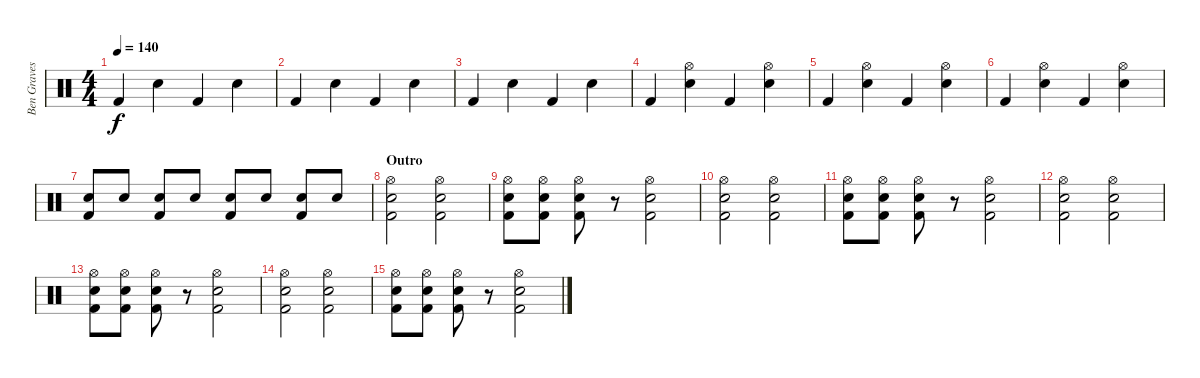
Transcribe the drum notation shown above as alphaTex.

\track ("Ben Graves" "Ben Graves") {instrument percussion}
\staff {score}
\articulation defaults
\ts (4 4)
\tempo 140
\clef neutral
\ks c "Kick (hit) 2".4{dy f} "Electric Snare (hit)".4 "Kick (hit) 2".4 "Electric Snare (hit)".4
|
"Kick (hit) 2".4 "Electric Snare (hit)".4 "Kick (hit) 2".4 "Electric Snare (hit)".4 |
"Kick (hit) 2".4 "Electric Snare (hit)".4 "Kick (hit) 2".4 "Electric Snare (hit)".4 |
"Kick (hit) 2".4 ("Electric Snare (hit)" "Hi-Hat (open)").4 "Kick (hit) 2".4 ("Electric Snare (hit)" "Hi-Hat (open)").4 |
"Kick (hit) 2".4 ("Electric Snare (hit)" "Hi-Hat (open)").4 "Kick (hit) 2".4 ("Electric Snare (hit)" "Hi-Hat (open)").4 |
"Kick (hit) 2".4 ("Electric Snare (hit)" "Hi-Hat (open)").4 "Kick (hit) 2".4 ("Electric Snare (hit)" "Hi-Hat (open)").4 |
("Kick (hit) 2" "Electric Snare (hit)").8 "Electric Snare (hit)".8 ("Kick (hit) 2" "Electric Snare (hit)").8 "Electric Snare (hit)".8 ("Kick (hit) 2" "Electric Snare (hit)").8 "Electric Snare (hit)".8 ("Kick (hit) 2" "Electric Snare (hit)").8 "Electric Snare (hit)".8 |
\section ("" "Outro")
("Kick (hit) 2" "Electric Snare (hit)" "Hi-Hat (open)").2 ("Kick (hit) 2" "Electric Snare (hit)" "Hi-Hat (open)").2 |
("Kick (hit) 2" "Electric Snare (hit)" "Hi-Hat (open)").8 ("Kick (hit) 2" "Electric Snare (hit)" "Hi-Hat (open)").8 ("Kick (hit) 2" "Electric Snare (hit)" "Hi-Hat (open)").8 r.8 ("Kick (hit) 2" "Electric Snare (hit)" "Hi-Hat (open)").2 |
("Kick (hit) 2" "Electric Snare (hit)" "Hi-Hat (open)").2 ("Kick (hit) 2" "Electric Snare (hit)" "Hi-Hat (open)").2 |
("Kick (hit) 2" "Electric Snare (hit)" "Hi-Hat (open)").8 ("Kick (hit) 2" "Electric Snare (hit)" "Hi-Hat (open)").8 ("Kick (hit) 2" "Electric Snare (hit)" "Hi-Hat (open)").8 r.8 ("Kick (hit) 2" "Electric Snare (hit)" "Hi-Hat (open)").2 |
("Kick (hit) 2" "Electric Snare (hit)" "Hi-Hat (open)").2 ("Kick (hit) 2" "Electric Snare (hit)" "Hi-Hat (open)").2 |
("Kick (hit) 2" "Electric Snare (hit)" "Hi-Hat (open)").8 ("Kick (hit) 2" "Electric Snare (hit)" "Hi-Hat (open)").8 ("Kick (hit) 2" "Electric Snare (hit)" "Hi-Hat (open)").8 r.8 ("Kick (hit) 2" "Electric Snare (hit)" "Hi-Hat (open)").2 |
("Kick (hit) 2" "Electric Snare (hit)" "Hi-Hat (open)").2 ("Kick (hit) 2" "Electric Snare (hit)" "Hi-Hat (open)").2 |
("Kick (hit) 2" "Electric Snare (hit)" "Hi-Hat (open)").8 ("Kick (hit) 2" "Electric Snare (hit)" "Hi-Hat (open)").8 ("Kick (hit) 2" "Electric Snare (hit)" "Hi-Hat (open)").8 r.8 ("Kick (hit) 2" "Electric Snare (hit)" "Hi-Hat (open)").2
